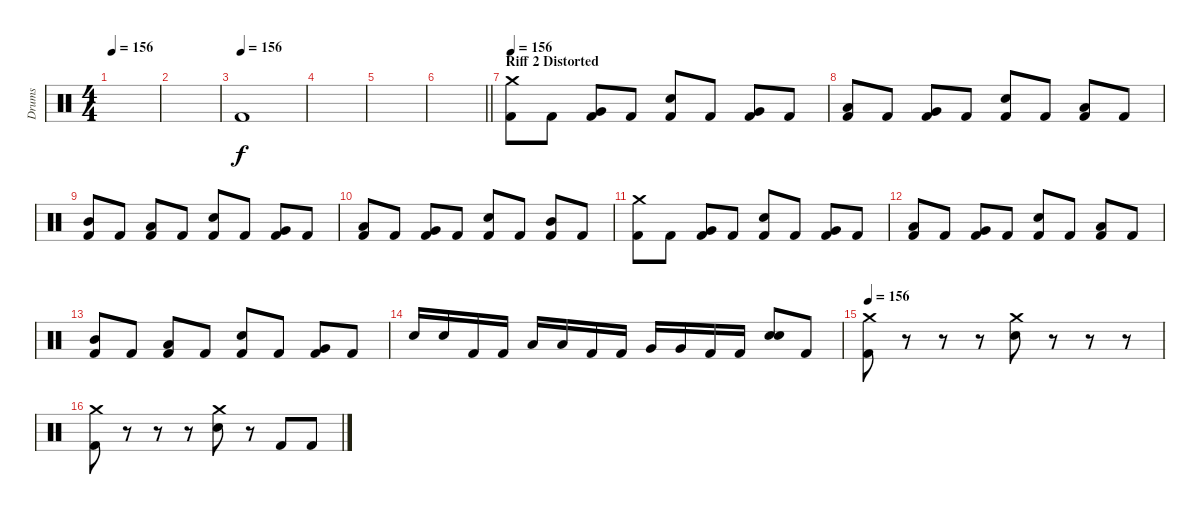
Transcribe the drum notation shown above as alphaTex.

\track ("Drums" "Drums") {instrument percussion}
\staff {score}
\articulation defaults
\ts (4 4)
\tempo 156
\clef neutral
\ks c
|
|
\tempo (156)
"Kick (hit) 2".1 |
|
|
\barLineRight lightlight
|
\section ("" "Riff 2 Distorted")
\tempo 156
("Crash medium (hit)" "Kick (hit) 2").8 "Kick (hit) 2".8 ("Very Low Tom (hit)" "Kick (hit) 2").8 "Kick (hit) 2".8 ("Snare (hit) 2" "Kick (hit) 2").8 "Kick (hit) 2".8 ("Very Low Tom (hit)" "Kick (hit) 2").8 "Kick (hit) 2".8 |
("Low Tom (hit)" "Kick (hit) 2").8 "Kick (hit) 2".8 ("Very Low Tom (hit)" "Kick (hit) 2").8 "Kick (hit) 2".8 ("Snare (hit) 2" "Kick (hit) 2").8 "Kick (hit) 2".8 ("Low Tom (hit)" "Kick (hit) 2").8 "Kick (hit) 2".8 |
("Mid Tom (hit)" "Kick (hit) 2").8 "Kick (hit) 2".8 ("Low Tom (hit)" "Kick (hit) 2").8 "Kick (hit) 2".8 ("Snare (hit) 2" "Kick (hit) 2").8 "Kick (hit) 2".8 ("Very Low Tom (hit)" "Kick (hit) 2").8 "Kick (hit) 2".8 |
("Low Tom (hit)" "Kick (hit) 2").8 "Kick (hit) 2".8 ("Very Low Tom (hit)" "Kick (hit) 2").8 "Kick (hit) 2".8 ("Snare (hit) 2" "Kick (hit) 2").8 "Kick (hit) 2".8 ("Mid Tom (hit)" "Kick (hit) 2").8 "Kick (hit) 2".8 |
("Crash medium (hit)" "Kick (hit) 2").8 "Kick (hit) 2".8 ("Very Low Tom (hit)" "Kick (hit) 2").8 "Kick (hit) 2".8 ("Snare (hit) 2" "Kick (hit) 2").8 "Kick (hit) 2".8 ("Very Low Tom (hit)" "Kick (hit) 2").8 "Kick (hit) 2".8 |
("Low Tom (hit)" "Kick (hit) 2").8 "Kick (hit) 2".8 ("Very Low Tom (hit)" "Kick (hit) 2").8 "Kick (hit) 2".8 ("Snare (hit) 2" "Kick (hit) 2").8 "Kick (hit) 2".8 ("Low Tom (hit)" "Kick (hit) 2").8 "Kick (hit) 2".8 |
("Mid Tom (hit)" "Kick (hit) 2").8 "Kick (hit) 2".8 ("Low Tom (hit)" "Kick (hit) 2").8 "Kick (hit) 2".8 ("Snare (hit) 2" "Kick (hit) 2").8 "Kick (hit) 2".8 ("Very Low Tom (hit)" "Kick (hit) 2").8 "Kick (hit) 2".8 |
"Snare (hit) 2".16 "Snare (hit) 2".16 "Kick (hit) 2".16 "Kick (hit) 2".16 "Low Tom (hit)".16 "Low Tom (hit)".16 "Kick (hit) 2".16 "Kick (hit) 2".16 "Very Low Tom (hit)".16 "Very Low Tom (hit)".16 "Kick (hit) 2".16 "Kick (hit) 2".16 ("Snare (hit) 2" "Snare (hit) 2").8 "Kick (hit) 2".8 |
\tempo 156
("Crash medium (hit)" "Kick (hit) 2").8 r.8 r.8 r.8 ("Crash medium (hit)" "Snare (hit) 2").8 r.8 r.8 r.8 |
("Crash medium (hit)" "Kick (hit) 2").8 r.8 r.8 r.8 ("Crash medium (hit)" "Snare (hit) 2").8 r.8 "Kick (hit) 2".8 "Kick (hit) 2".8
